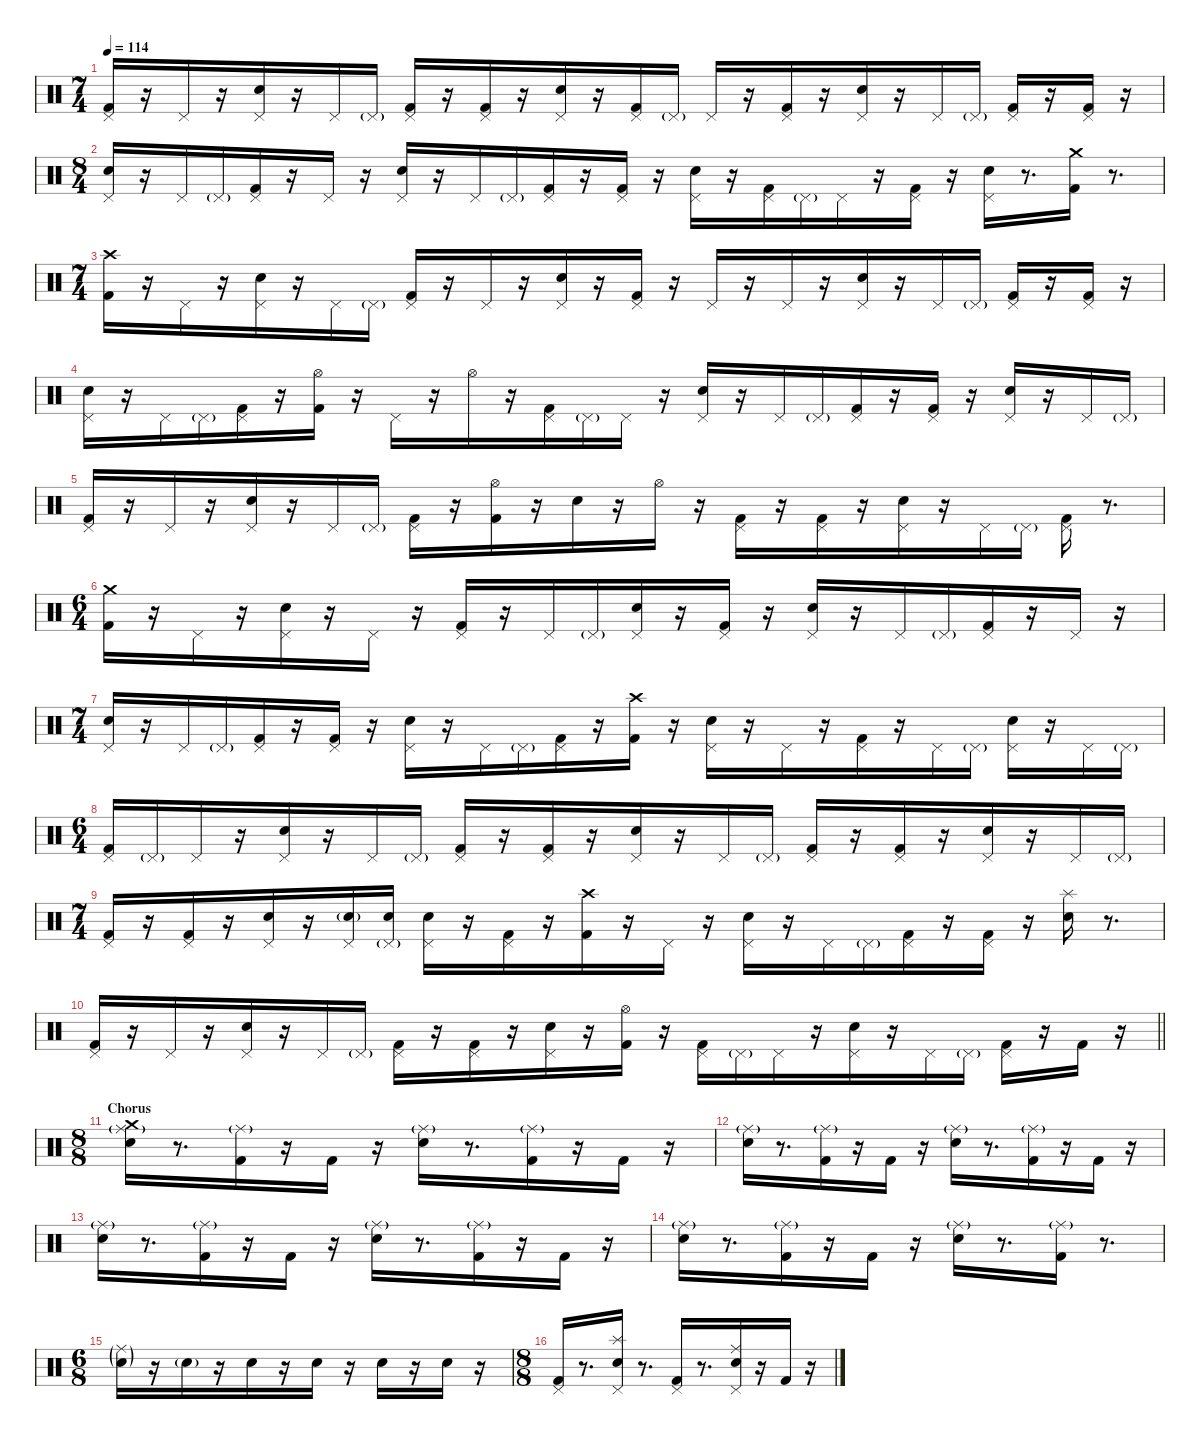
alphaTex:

\defaultSystemsLayout 4
\hideDynamics
\bracketExtendMode nobrackets
\singleTrackTrackNamePolicy hidden
\multiTrackTrackNamePolicy hidden
\firstSystemTrackNameMode fullname
\firstSystemTrackNameOrientation horizontal
\otherSystemsTrackNameOrientation horizontal
\track ("Drums" "drm.") {instrument percussion}
\staff {score}
\articulation defaults
\ts (7 4)
\beaming (8 4 4 4 4)
\tempo 114
\clef neutral
\ks c
("Pedal Hi-Hat (hit)" "Kick (hit) 2").16{dy f beam Up} r.16{beam Up} "Pedal Hi-Hat (hit)".16{beam Up} r.16{beam Up} ("Pedal Hi-Hat (hit)" "Snare (hit) 2").16{beam Up} r.16{beam Up} "Pedal Hi-Hat (hit)".16{beam Up} "Pedal Hi-Hat (hit)"{g}.16{dy mf beam Up} ("Pedal Hi-Hat (hit)" "Kick (hit) 2").16{dy f beam Up} r.16{beam Up} ("Pedal Hi-Hat (hit)" "Kick (hit) 2").16{beam Up} r.16{beam Up} ("Pedal Hi-Hat (hit)" "Snare (hit) 2").16{beam Up} r.16{beam Up} ("Pedal Hi-Hat (hit)" "Kick (hit) 2").16{beam Up} "Pedal Hi-Hat (hit)"{g}.16{dy mf beam Up} "Pedal Hi-Hat (hit)".16{dy f beam Up} r.16{beam Up} ("Pedal Hi-Hat (hit)" "Kick (hit) 2").16{beam Up} r.16{beam Up} ("Pedal Hi-Hat (hit)" "Snare (hit) 2").16{beam Up} r.16{beam Up} "Pedal Hi-Hat (hit)".16{beam Up} "Pedal Hi-Hat (hit)"{g}.16{dy mf beam Up} ("Pedal Hi-Hat (hit)" "Kick (hit) 2").16{dy f beam Up} r.16{beam Up} ("Pedal Hi-Hat (hit)" "Kick (hit) 2").16{beam Up} r.16{beam Up} |
\ts (8 4)
\beaming (8 4 4 4 4)
("Pedal Hi-Hat (hit)" "Snare (hit) 2").16{beam Up} r.16{beam Up} "Pedal Hi-Hat (hit)".16{beam Up} "Pedal Hi-Hat (hit)"{g}.16{dy mf beam Up} ("Pedal Hi-Hat (hit)" "Kick (hit) 2").16{dy f beam Up} r.16{beam Up} "Pedal Hi-Hat (hit)".16{beam Up} r.16{beam Up} ("Pedal Hi-Hat (hit)" "Snare (hit) 2").16{beam Up} r.16{beam Up} "Pedal Hi-Hat (hit)".16{beam Up} "Pedal Hi-Hat (hit)"{g}.16{dy mf beam Up} ("Pedal Hi-Hat (hit)" "Kick (hit) 2").16{dy f beam Up} r.16{beam Up} ("Pedal Hi-Hat (hit)" "Kick (hit) 2").16{beam Up} r.16{beam Down} ("Pedal Hi-Hat (hit)" "Snare (hit) 2").16{beam Down} r.16{beam Down} ("Pedal Hi-Hat (hit)" "Kick (hit) 2").16{beam Down} "Pedal Hi-Hat (hit)"{g}.16{dy mf beam Down} "Pedal Hi-Hat (hit)".16{dy f beam Down} r.16{beam Down} ("Pedal Hi-Hat (hit)" "Kick (hit) 2").16{beam Down} r.16{beam Down} ("Pedal Hi-Hat (hit)" "Snare (hit) 2").16{beam Down} r.8{d beam Down} ("Crash medium (hit)" "Kick (hit) 2").16{beam Down} r.8{d beam Down} |
\ts (7 4)
\beaming (8 4 4 4 4)
("Crash high (hit)" "Kick (hit) 2").16{beam Down} r.16{beam Down} "Pedal Hi-Hat (hit)".16{beam Down} r.16{beam Down} ("Pedal Hi-Hat (hit)" "Snare (hit) 2").16{beam Down} r.16{beam Down} "Pedal Hi-Hat (hit)".16{beam Down} "Pedal Hi-Hat (hit)"{g}.16{dy mf beam Down} ("Pedal Hi-Hat (hit)" "Kick (hit) 2").16{dy f beam Up} r.16{beam Up} "Pedal Hi-Hat (hit)".16{beam Up} r.16{beam Up} ("Pedal Hi-Hat (hit)" "Snare (hit) 2").16{beam Up} r.16{beam Up} ("Pedal Hi-Hat (hit)" "Kick (hit) 2").16{beam Up} r.16{beam Up} "Pedal Hi-Hat (hit)".16{beam Up} r.16{beam Up} "Pedal Hi-Hat (hit)".16{beam Up} r.16{beam Up} ("Pedal Hi-Hat (hit)" "Snare (hit) 2").16{beam Up} r.16{beam Up} "Pedal Hi-Hat (hit)".16{beam Up} "Pedal Hi-Hat (hit)"{g}.16{dy mf beam Up} ("Pedal Hi-Hat (hit)" "Kick (hit) 2").16{dy f beam Up} r.16{beam Up} ("Pedal Hi-Hat (hit)" "Kick (hit) 2").16{beam Up} r.16{beam Up} |
("Pedal Hi-Hat (hit)" "Snare (hit) 2").16{beam Down} r.16{beam Down} "Pedal Hi-Hat (hit)".16{beam Down} "Pedal Hi-Hat (hit)"{g}.16{dy mf beam Down} ("Pedal Hi-Hat (hit)" "Kick (hit) 2").16{dy f beam Down} r.16{beam Down} ("Hi-Hat (open)" "Kick (hit) 2").16{beam Down} r.16{beam Down} "Pedal Hi-Hat (hit)".16{beam Down} r.16{beam Down} "Hi-Hat (open)".16{beam Down} r.16{beam Down} ("Pedal Hi-Hat (hit)" "Kick (hit) 2").16{beam Down} "Pedal Hi-Hat (hit)"{g}.16{dy mf beam Down} "Pedal Hi-Hat (hit)".16{dy f beam Down} r.16{beam Up} ("Pedal Hi-Hat (hit)" "Snare (hit) 2").16{beam Up} r.16{beam Up} "Pedal Hi-Hat (hit)".16{beam Up} "Pedal Hi-Hat (hit)"{g}.16{dy mf beam Up} ("Pedal Hi-Hat (hit)" "Kick (hit) 2").16{dy f beam Up} r.16{beam Up} ("Pedal Hi-Hat (hit)" "Kick (hit) 2").16{beam Up} r.16{beam Up} ("Pedal Hi-Hat (hit)" "Snare (hit) 2").16{beam Up} r.16{beam Up} "Pedal Hi-Hat (hit)".16{beam Up} "Pedal Hi-Hat (hit)"{g}.16{dy mf beam Up} |
("Pedal Hi-Hat (hit)" "Kick (hit) 2").16{dy f beam Up} r.16{beam Up} "Pedal Hi-Hat (hit)".16{beam Up} r.16{beam Up} ("Pedal Hi-Hat (hit)" "Snare (hit) 2").16{beam Up} r.16{beam Up} "Pedal Hi-Hat (hit)".16{beam Up} "Pedal Hi-Hat (hit)"{g}.16{dy mf beam Up} ("Pedal Hi-Hat (hit)" "Kick (hit) 2").16{dy f beam Down} r.16{beam Down} ("Hi-Hat (open)" "Kick (hit) 2").16{beam Down} r.16{beam Down} "Snare (hit) 2".16{beam Down} r.16{beam Down} "Hi-Hat (open)".16{beam Down} r.16{beam Down} ("Pedal Hi-Hat (hit)" "Kick (hit) 2").16{beam Down} r.16{beam Down} ("Pedal Hi-Hat (hit)" "Kick (hit) 2").16{beam Down} r.16{beam Down} ("Pedal Hi-Hat (hit)" "Snare (hit) 2").16{beam Down} r.16{beam Down} "Pedal Hi-Hat (hit)".16{beam Down} "Pedal Hi-Hat (hit)"{g}.16{dy mf beam Down} ("Pedal Hi-Hat (hit)" "Kick (hit) 2").16{dy f beam Down} r.8{d beam Down} |
\ts (6 4)
\beaming (8 4 4 4 4)
("Crash medium (hit)" "Kick (hit) 2").16{beam Down} r.16{beam Down} "Pedal Hi-Hat (hit)".16{beam Down} r.16{beam Down} ("Pedal Hi-Hat (hit)" "Snare (hit) 2").16{beam Down} r.16{beam Down} "Pedal Hi-Hat (hit)".16{beam Down} r.16{beam Up} ("Pedal Hi-Hat (hit)" "Kick (hit) 2").16{beam Up} r.16{beam Up} "Pedal Hi-Hat (hit)".16{beam Up} "Pedal Hi-Hat (hit)"{g}.16{dy mf beam Up} ("Pedal Hi-Hat (hit)" "Snare (hit) 2").16{dy f beam Up} r.16{beam Up} ("Pedal Hi-Hat (hit)" "Kick (hit) 2").16{beam Up} r.16{beam Up} ("Pedal Hi-Hat (hit)" "Snare (hit) 2").16{beam Up} r.16{beam Up} "Pedal Hi-Hat (hit)".16{beam Up} "Pedal Hi-Hat (hit)"{g}.16{dy mf beam Up} ("Pedal Hi-Hat (hit)" "Kick (hit) 2").16{dy f beam Up} r.16{beam Up} "Pedal Hi-Hat (hit)".16{beam Up} r.16{beam Up} |
\ts (7 4)
\beaming (8 4 4 4 4)
("Pedal Hi-Hat (hit)" "Snare (hit) 2").16{beam Up} r.16{beam Up} "Pedal Hi-Hat (hit)".16{beam Up} "Pedal Hi-Hat (hit)"{g}.16{dy mf beam Up} ("Pedal Hi-Hat (hit)" "Kick (hit) 2").16{dy f beam Up} r.16{beam Up} ("Pedal Hi-Hat (hit)" "Kick (hit) 2").16{beam Up} r.16{beam Up} ("Pedal Hi-Hat (hit)" "Snare (hit) 2").16{beam Down} r.16{beam Down} "Pedal Hi-Hat (hit)".16{beam Down} "Pedal Hi-Hat (hit)"{g}.16{dy mf beam Down} ("Pedal Hi-Hat (hit)" "Kick (hit) 2").16{dy f beam Down} r.16{beam Down} ("Crash high (hit)" "Kick (hit) 2").16{beam Down} r.16{beam Down} ("Pedal Hi-Hat (hit)" "Snare (hit) 2").16{beam Down} r.16{beam Down} "Pedal Hi-Hat (hit)".16{beam Down} r.16{beam Down} ("Pedal Hi-Hat (hit)" "Kick (hit) 2").16{beam Down} r.16{beam Down} "Pedal Hi-Hat (hit)".16{beam Down} "Pedal Hi-Hat (hit)"{g}.16{dy mf beam Down} ("Pedal Hi-Hat (hit)" "Snare (hit) 2").16{dy f beam Down} r.16{beam Down} "Pedal Hi-Hat (hit)".16{beam Down} "Pedal Hi-Hat (hit)"{g}.16{dy mf beam Down} |
\ts (6 4)
\beaming (8 4 4 4 4)
("Pedal Hi-Hat (hit)" "Kick (hit) 2").16{dy f beam Up} "Pedal Hi-Hat (hit)"{g}.16{dy mf beam Up} "Pedal Hi-Hat (hit)".16{dy f beam Up} r.16{beam Up} ("Pedal Hi-Hat (hit)" "Snare (hit) 2").16{beam Up} r.16{beam Up} "Pedal Hi-Hat (hit)".16{beam Up} "Pedal Hi-Hat (hit)"{g}.16{dy mf beam Up} ("Pedal Hi-Hat (hit)" "Kick (hit) 2").16{dy f beam Up} r.16{beam Up} ("Pedal Hi-Hat (hit)" "Kick (hit) 2").16{beam Up} r.16{beam Up} ("Pedal Hi-Hat (hit)" "Snare (hit) 2").16{beam Up} r.16{beam Up} "Pedal Hi-Hat (hit)".16{beam Up} "Pedal Hi-Hat (hit)"{g}.16{dy mf beam Up} ("Pedal Hi-Hat (hit)" "Kick (hit) 2").16{dy f beam Up} r.16{beam Up} ("Pedal Hi-Hat (hit)" "Kick (hit) 2").16{beam Up} r.16{beam Up} ("Pedal Hi-Hat (hit)" "Snare (hit) 2").16{beam Up} r.16{beam Up} "Pedal Hi-Hat (hit)".16{beam Up} "Pedal Hi-Hat (hit)"{g}.16{dy mf beam Up} |
\ts (7 4)
\beaming (8 4 4 4 4)
("Pedal Hi-Hat (hit)" "Kick (hit) 2").16{dy f beam Up} r.16{beam Up} ("Pedal Hi-Hat (hit)" "Kick (hit) 2").16{beam Up} r.16{beam Up} ("Pedal Hi-Hat (hit)" "Snare (hit) 2").16{beam Up} r.16{beam Up} ("Pedal Hi-Hat (hit)" "Snare (hit) 2"{g}).16{beam Up} ("Pedal Hi-Hat (hit)"{g} "Snare (hit) 2").16{beam Up} ("Pedal Hi-Hat (hit)" "Snare (hit) 2").16{beam Down} r.16{beam Down} ("Pedal Hi-Hat (hit)" "Kick (hit) 2").16{beam Down} r.16{beam Down} ("Crash high (hit)" "Kick (hit) 2").16{beam Down} r.16{beam Down} "Pedal Hi-Hat (hit)".16{beam Down} r.16{beam Down} ("Pedal Hi-Hat (hit)" "Snare (hit) 2").16{beam Down} r.16{beam Down} "Pedal Hi-Hat (hit)".16{beam Down} "Pedal Hi-Hat (hit)"{g}.16{dy mf beam Down} ("Pedal Hi-Hat (hit)" "Kick (hit) 2").16{dy f beam Down} r.16{beam Down} ("Pedal Hi-Hat (hit)" "Kick (hit) 2").16{beam Down} r.16{beam Down} ("Splash (hit)" "Snare (hit) 2").16{beam Down} r.8{d beam Down} |
\barLineRight lightlight
("Pedal Hi-Hat (hit)" "Kick (hit) 2").16{beam Up} r.16{beam Up} "Pedal Hi-Hat (hit)".16{beam Up} r.16{beam Up} ("Pedal Hi-Hat (hit)" "Snare (hit) 2").16{beam Up} r.16{beam Up} "Pedal Hi-Hat (hit)".16{beam Up} "Pedal Hi-Hat (hit)"{g}.16{dy mf beam Up} ("Pedal Hi-Hat (hit)" "Kick (hit) 2").16{dy f beam Down} r.16{beam Down} ("Pedal Hi-Hat (hit)" "Kick (hit) 2").16{beam Down} r.16{beam Down} ("Pedal Hi-Hat (hit)" "Snare (hit) 2").16{beam Down} r.16{beam Down} ("Hi-Hat (open)" "Kick (hit) 2").16{beam Down} r.16{beam Down} ("Pedal Hi-Hat (hit)" "Kick (hit) 2").16{beam Down} "Pedal Hi-Hat (hit)"{g}.16{dy mf beam Down} "Pedal Hi-Hat (hit)".16{dy f beam Down} r.16{beam Down} ("Pedal Hi-Hat (hit)" "Snare (hit) 2").16{beam Down} r.16{beam Down} "Pedal Hi-Hat (hit)".16{beam Down} "Pedal Hi-Hat (hit)"{g}.16{dy mf beam Down} ("Pedal Hi-Hat (hit)" "Kick (hit) 2").16{dy f beam Down} r.16{beam Down} "Kick (hit) 2".16{beam Down} r.16{beam Down} |
\ts (8 8)
\beaming (8 4 4 4 4)
\section ("" "Chorus")
("Crash medium (hit)" "Ride (middle)"{g} "Snare (hit) 2").16{beam Down} r.8{d beam Down} ("Ride (middle)"{g} "Kick (hit) 2").16{beam Down} r.16{beam Down} "Kick (hit) 2".16{beam Down} r.16{beam Down} ("Ride (middle)"{g} "Snare (hit) 2").16{beam Down} r.8{d beam Down} ("Ride (middle)"{g} "Kick (hit) 2").16{beam Down} r.16{beam Down} "Kick (hit) 2".16{beam Down} r.16{beam Down} |
("Ride (middle)"{g} "Snare (hit) 2").16{beam Down} r.8{d beam Down} ("Ride (middle)"{g} "Kick (hit) 2").16{beam Down} r.16{beam Down} "Kick (hit) 2".16{beam Down} r.16{beam Down} ("Ride (middle)"{g} "Snare (hit) 2").16{beam Down} r.8{d beam Down} ("Ride (middle)"{g} "Kick (hit) 2").16{beam Down} r.16{beam Down} "Kick (hit) 2".16{beam Down} r.16{beam Down} |
("Ride (middle)"{g} "Snare (hit) 2").16{beam Down} r.8{d beam Down} ("Ride (middle)"{g} "Kick (hit) 2").16{beam Down} r.16{beam Down} "Kick (hit) 2".16{beam Down} r.16{beam Down} ("Ride (middle)"{g} "Snare (hit) 2").16{beam Down} r.8{d beam Down} ("Ride (middle)"{g} "Kick (hit) 2").16{beam Down} r.16{beam Down} "Kick (hit) 2".16{beam Down} r.16{beam Down} |
("Ride (middle)"{g} "Snare (hit) 2").16{beam Down} r.8{d beam Down} ("Ride (middle)"{g} "Kick (hit) 2").16{beam Down} r.16{beam Down} "Kick (hit) 2".16{beam Down} r.16{beam Down} ("Ride (middle)"{g} "Snare (hit) 2").16{beam Down} r.8{d beam Down} ("Ride (middle)"{g} "Kick (hit) 2").16{beam Down} r.8{d beam Down} |
\ts (6 8)
\beaming (8 4 4 4 4)
("Ride (middle)"{g} "Snare (hit) 2"{g}).16{dy pp beam Down} r.16{beam Down} "Snare (hit) 2"{g}.16{dy mf beam Down} r.16{beam Down} "Snare (hit) 2".16{dy f beam Down} r.16{beam Down} "Snare (hit) 2".16{beam Down} r.16{beam Down} "Snare (hit) 2".16{beam Down} r.16{beam Down} "Snare (hit) 2".16{beam Down} r.16{beam Down} |
\ts (8 8)
\beaming (8 4 4 4 4)
("Pedal Hi-Hat (hit)" "Kick (hit) 2").16{beam Up} r.8{d beam Up} ("Splash (hit)" "Pedal Hi-Hat (hit)" "Snare (hit) 2").16{beam Up} r.8{d beam Down} ("Pedal Hi-Hat (hit)" "Kick (hit) 2").16{beam Up} r.8{d beam Up} ("Ride (middle)" "Pedal Hi-Hat (hit)" "Snare (hit) 2").16{beam Up} r.16{beam Up} "Kick (hit) 2".16{beam Up} r.16{beam Up}
